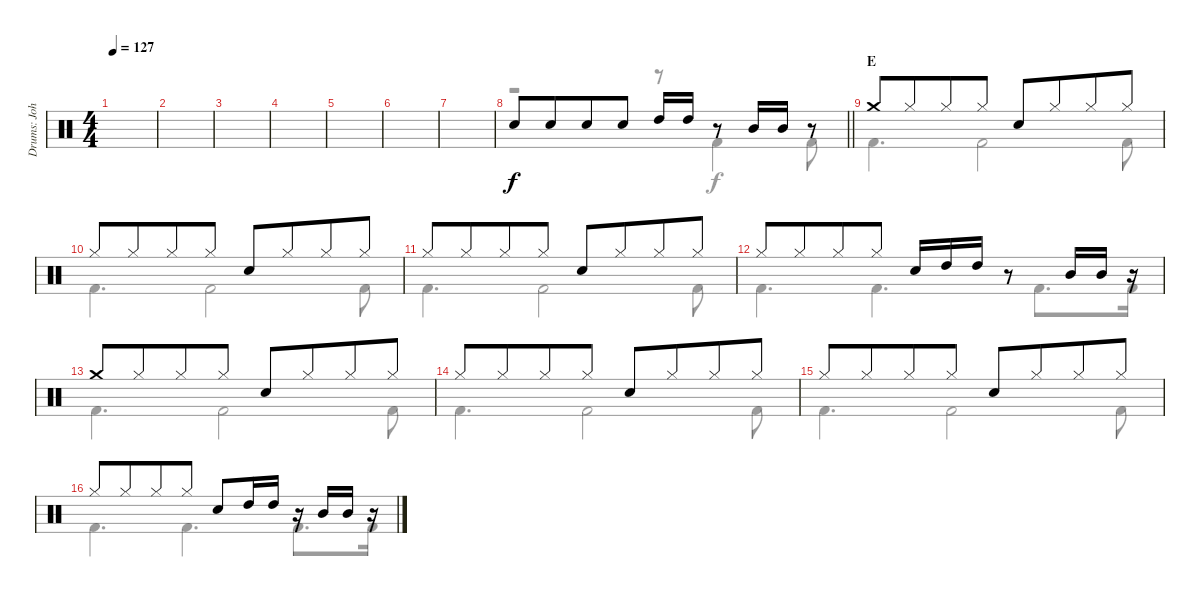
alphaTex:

\track ("Drums: John" "Drums: Joh") {instrument percussion}
\staff {score}
\articulation defaults
\voice
\ts (4 4)
\tempo 127
\clef neutral
\ks c
|
|
|
|
|
|
|
\barLineRight lightlight "Snare (hit) 2".8 "Snare (hit) 2".8{beam merge} "Snare (hit) 2".8 "Snare (hit) 2".8 "High Tom (hit)".16 "High Tom (hit)".16
r.8 "Mid Tom (hit)".16 "Mid Tom (hit)".16 r.8 |
\section ("" "E")
"Crash medium (hit)".8 "Hi-Hat (closed)".8{beam merge} "Hi-Hat (closed)".8 "Hi-Hat (closed)".8 "Snare (hit) 2".8 "Hi-Hat (closed)".8{beam merge} "Hi-Hat (closed)".8 "Hi-Hat (closed)".8 |
"Hi-Hat (closed)".8 "Hi-Hat (closed)".8{beam merge} "Hi-Hat (closed)".8 "Hi-Hat (closed)".8 "Snare (hit) 2".8 "Hi-Hat (closed)".8{beam merge} "Hi-Hat (closed)".8 "Hi-Hat (closed)".8 |
"Hi-Hat (closed)".8 "Hi-Hat (closed)".8{beam merge} "Hi-Hat (closed)".8 "Hi-Hat (closed)".8 "Snare (hit) 2".8 "Hi-Hat (closed)".8{beam merge} "Hi-Hat (closed)".8 "Hi-Hat (closed)".8 |
"Hi-Hat (closed)".8 "Hi-Hat (closed)".8{beam merge} "Hi-Hat (closed)".8 "Hi-Hat (closed)".8 "Snare (hit) 2".16 "High Tom (hit)".16 "High Tom (hit)".16 r.8 "Mid Tom (hit)".16 "Mid Tom (hit)".16 r.16 |
"Crash medium (hit)".8 "Hi-Hat (closed)".8{beam merge} "Hi-Hat (closed)".8 "Hi-Hat (closed)".8 "Snare (hit) 2".8 "Hi-Hat (closed)".8{beam merge} "Hi-Hat (closed)".8 "Hi-Hat (closed)".8 |
"Hi-Hat (closed)".8 "Hi-Hat (closed)".8{beam merge} "Hi-Hat (closed)".8 "Hi-Hat (closed)".8 "Snare (hit) 2".8 "Hi-Hat (closed)".8{beam merge} "Hi-Hat (closed)".8 "Hi-Hat (closed)".8 |
"Hi-Hat (closed)".8 "Hi-Hat (closed)".8{beam merge} "Hi-Hat (closed)".8 "Hi-Hat (closed)".8 "Snare (hit) 2".8 "Hi-Hat (closed)".8{beam merge} "Hi-Hat (closed)".8 "Hi-Hat (closed)".8 |
"Hi-Hat (closed)".8 "Hi-Hat (closed)".8{beam merge} "Hi-Hat (closed)".8 "Hi-Hat (closed)".8 "Snare (hit) 2".8 "High Tom (hit)".16 "High Tom (hit)".16 r.16 "Mid Tom (hit)".16 "Mid Tom (hit)".16 r.16
\voice
\clef neutral
\ottava regular
\simile none
\ks c
|
|
|
|
|
|
|
\barLineRight lightlight
r.2 r.8 "Kick (hit) 2".4 "Kick (hit) 2".8 |
"Kick (hit) 2".4{d} "Kick (hit) 2".2 "Kick (hit) 2".8 |
"Kick (hit) 2".4{d} "Kick (hit) 2".2 "Kick (hit) 2".8 |
"Kick (hit) 2".4{d} "Kick (hit) 2".2 "Kick (hit) 2".8 |
"Kick (hit) 2".4{d} "Kick (hit) 2".4{d} "Kick (hit) 2".8{d} "Kick (hit) 2".16 |
"Kick (hit) 2".4{d} "Kick (hit) 2".2 "Kick (hit) 2".8 |
"Kick (hit) 2".4{d} "Kick (hit) 2".2 "Kick (hit) 2".8 |
"Kick (hit) 2".4{d} "Kick (hit) 2".2 "Kick (hit) 2".8 |
"Kick (hit) 2".4{d} "Kick (hit) 2".4{d} "Kick (hit) 2".8{d} "Kick (hit) 2".16
